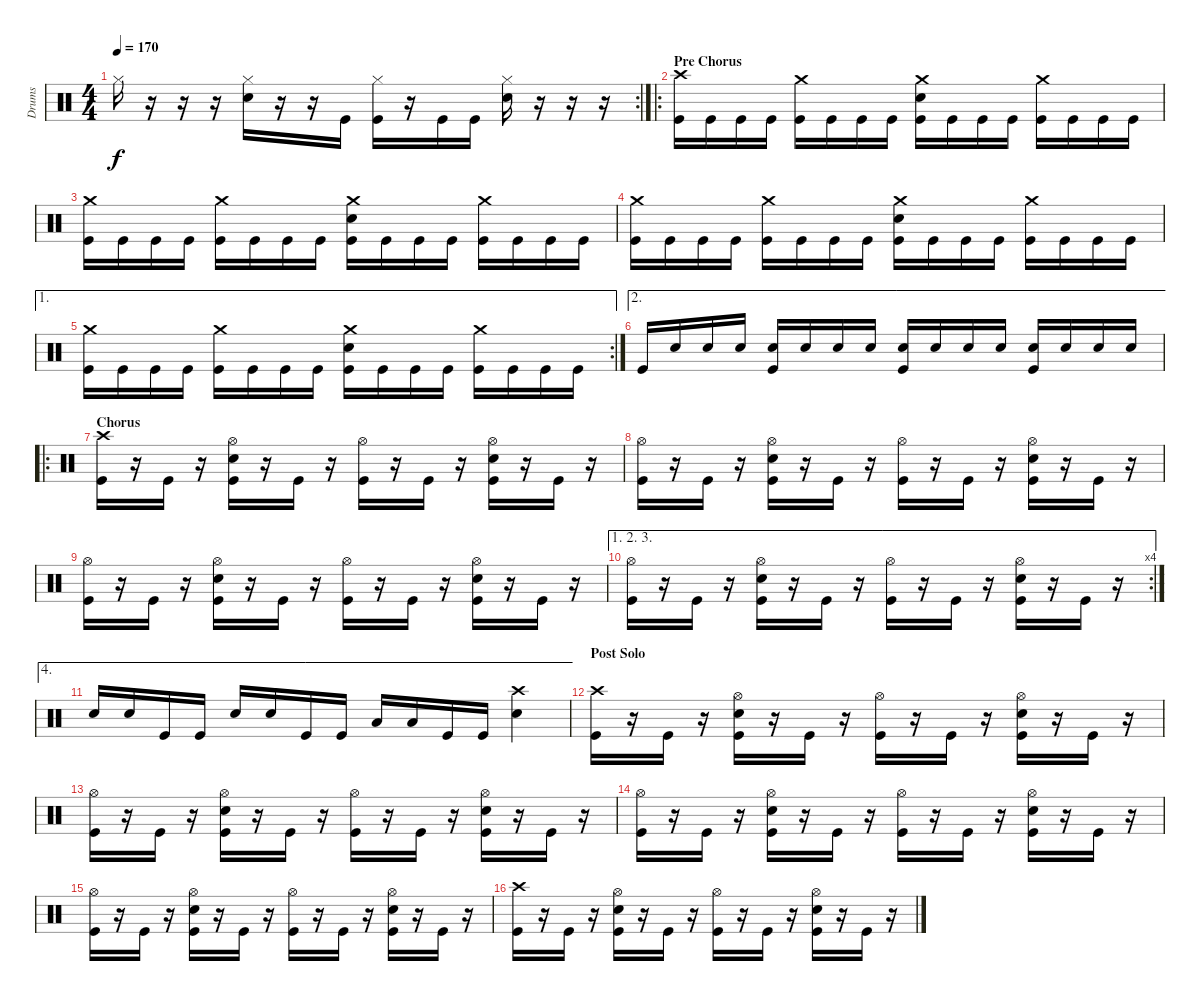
\track ("Drums" "Drums") {instrument percussion}
\staff {score}
\articulation defaults
\rc 2
\ts (4 4)
\tempo 170
\clef neutral
\ks c "Hi-Hat (closed)".16{dy f}
r.16 r.16 r.16 ("Hi-Hat (closed)" "Snare (hit) 2").16 r.16 r.16 "Kick (hit)".16 ("Hi-Hat (closed)" "Kick (hit)").16 r.16 "Kick (hit)".16 "Kick (hit)".16 ("Hi-Hat (closed)" "Snare (hit) 2").16 r.16 r.16 r.16 |
\ro
\section ("" "Pre Chorus")
("Crash high (hit)" "Kick (hit)").16 "Kick (hit)".16 "Kick (hit)".16 "Kick (hit)".16 ("Crash medium (hit)" "Kick (hit)").16 "Kick (hit)".16 "Kick (hit)".16 "Kick (hit)".16 ("Crash medium (hit)" "Snare (hit) 2" "Kick (hit)").16 "Kick (hit)".16 "Kick (hit)".16 "Kick (hit)".16 ("Crash medium (hit)" "Kick (hit)").16 "Kick (hit)".16 "Kick (hit)".16 "Kick (hit)".16 |
("Crash medium (hit)" "Kick (hit)").16 "Kick (hit)".16 "Kick (hit)".16 "Kick (hit)".16 ("Crash medium (hit)" "Kick (hit)").16 "Kick (hit)".16 "Kick (hit)".16 "Kick (hit)".16 ("Crash medium (hit)" "Snare (hit) 2" "Kick (hit)").16 "Kick (hit)".16 "Kick (hit)".16 "Kick (hit)".16 ("Crash medium (hit)" "Kick (hit)").16 "Kick (hit)".16 "Kick (hit)".16 "Kick (hit)".16 |
("Crash medium (hit)" "Kick (hit)").16 "Kick (hit)".16 "Kick (hit)".16 "Kick (hit)".16 ("Crash medium (hit)" "Kick (hit)").16 "Kick (hit)".16 "Kick (hit)".16 "Kick (hit)".16 ("Crash medium (hit)" "Snare (hit) 2" "Kick (hit)").16 "Kick (hit)".16 "Kick (hit)".16 "Kick (hit)".16 ("Crash medium (hit)" "Kick (hit)").16 "Kick (hit)".16 "Kick (hit)".16 "Kick (hit)".16 |
\ae 1
\rc 2
("Crash medium (hit)" "Kick (hit)").16 "Kick (hit)".16 "Kick (hit)".16 "Kick (hit)".16 ("Crash medium (hit)" "Kick (hit)").16 "Kick (hit)".16 "Kick (hit)".16 "Kick (hit)".16 ("Crash medium (hit)" "Snare (hit) 2" "Kick (hit)").16 "Kick (hit)".16 "Kick (hit)".16 "Kick (hit)".16 ("Crash medium (hit)" "Kick (hit)").16 "Kick (hit)".16 "Kick (hit)".16 "Kick (hit)".16 |
\ae 2 "Kick (hit)".16 "Snare (hit) 2".16 "Snare (hit) 2".16 "Snare (hit) 2".16
("Snare (hit) 2" "Kick (hit)").16 "Snare (hit) 2".16 "Snare (hit) 2".16 "Snare (hit) 2".16 ("Snare (hit) 2" "Kick (hit)").16 "Snare (hit) 2".16 "Snare (hit) 2".16 "Snare (hit) 2".16 ("Snare (hit) 2" "Kick (hit)").16 "Snare (hit) 2".16 "Snare (hit) 2".16 "Snare (hit) 2".16 |
\ro
\section ("" "Chorus")
("Crash high (hit)" "Kick (hit)").16 r.16 "Kick (hit)".16 r.16 ("Hi-Hat (open)" "Snare (hit) 2" "Kick (hit)").16 r.16 "Kick (hit)".16 r.16 ("Hi-Hat (open)" "Kick (hit)").16 r.16 "Kick (hit)".16 r.16 ("Hi-Hat (open)" "Snare (hit) 2" "Kick (hit)").16 r.16 "Kick (hit)".16 r.16 |
("Hi-Hat (open)" "Kick (hit)").16 r.16 "Kick (hit)".16 r.16 ("Hi-Hat (open)" "Snare (hit) 2" "Kick (hit)").16 r.16 "Kick (hit)".16 r.16 ("Hi-Hat (open)" "Kick (hit)").16 r.16 "Kick (hit)".16 r.16 ("Hi-Hat (open)" "Snare (hit) 2" "Kick (hit)").16 r.16 "Kick (hit)".16 r.16 |
("Hi-Hat (open)" "Kick (hit)").16 r.16 "Kick (hit)".16 r.16 ("Hi-Hat (open)" "Snare (hit) 2" "Kick (hit)").16 r.16 "Kick (hit)".16 r.16 ("Hi-Hat (open)" "Kick (hit)").16 r.16 "Kick (hit)".16 r.16 ("Hi-Hat (open)" "Snare (hit) 2" "Kick (hit)").16 r.16 "Kick (hit)".16 r.16 |
\ae (1 2 3)
\rc 4
("Hi-Hat (open)" "Kick (hit)").16 r.16 "Kick (hit)".16 r.16 ("Hi-Hat (open)" "Snare (hit) 2" "Kick (hit)").16 r.16 "Kick (hit)".16 r.16 ("Hi-Hat (open)" "Kick (hit)").16 r.16 "Kick (hit)".16 r.16 ("Hi-Hat (open)" "Snare (hit) 2" "Kick (hit)").16 r.16 "Kick (hit)".16 r.16 |
\ae 4 "Snare (hit) 2".16 "Snare (hit) 2".16 "Kick (hit)".16 "Kick (hit)".16 "Snare (hit) 2".16 "Snare (hit) 2".16 "Kick (hit)".16 "Kick (hit)".16 "Low Tom (hit)".16 "Low Tom (hit)".16 "Kick (hit)".16 "Kick (hit)".16
("Crash high (hit)" "Snare (hit) 2").4 |
\section ("" "Post Solo")
("Crash high (hit)" "Kick (hit)").16 r.16 "Kick (hit)".16 r.16 ("Hi-Hat (open)" "Snare (hit) 2" "Kick (hit)").16 r.16 "Kick (hit)".16 r.16 ("Hi-Hat (open)" "Kick (hit)").16 r.16 "Kick (hit)".16 r.16 ("Hi-Hat (open)" "Snare (hit) 2" "Kick (hit)").16 r.16 "Kick (hit)".16 r.16 |
("Hi-Hat (open)" "Kick (hit)").16 r.16 "Kick (hit)".16 r.16 ("Hi-Hat (open)" "Snare (hit) 2" "Kick (hit)").16 r.16 "Kick (hit)".16 r.16 ("Hi-Hat (open)" "Kick (hit)").16 r.16 "Kick (hit)".16 r.16 ("Hi-Hat (open)" "Snare (hit) 2" "Kick (hit)").16 r.16 "Kick (hit)".16 r.16 |
("Hi-Hat (open)" "Kick (hit)").16 r.16 "Kick (hit)".16 r.16 ("Hi-Hat (open)" "Snare (hit) 2" "Kick (hit)").16 r.16 "Kick (hit)".16 r.16 ("Hi-Hat (open)" "Kick (hit)").16 r.16 "Kick (hit)".16 r.16 ("Hi-Hat (open)" "Snare (hit) 2" "Kick (hit)").16 r.16 "Kick (hit)".16 r.16 |
("Hi-Hat (open)" "Kick (hit)").16 r.16 "Kick (hit)".16 r.16 ("Hi-Hat (open)" "Snare (hit) 2" "Kick (hit)").16 r.16 "Kick (hit)".16 r.16 ("Hi-Hat (open)" "Kick (hit)").16 r.16 "Kick (hit)".16 r.16 ("Hi-Hat (open)" "Snare (hit) 2" "Kick (hit)").16 r.16 "Kick (hit)".16 r.16 |
("Crash high (hit)" "Kick (hit)").16 r.16 "Kick (hit)".16 r.16 ("Hi-Hat (open)" "Snare (hit) 2" "Kick (hit)").16 r.16 "Kick (hit)".16 r.16 ("Hi-Hat (open)" "Kick (hit)").16 r.16 "Kick (hit)".16 r.16 ("Hi-Hat (open)" "Snare (hit) 2" "Kick (hit)").16 r.16 "Kick (hit)".16 r.16
